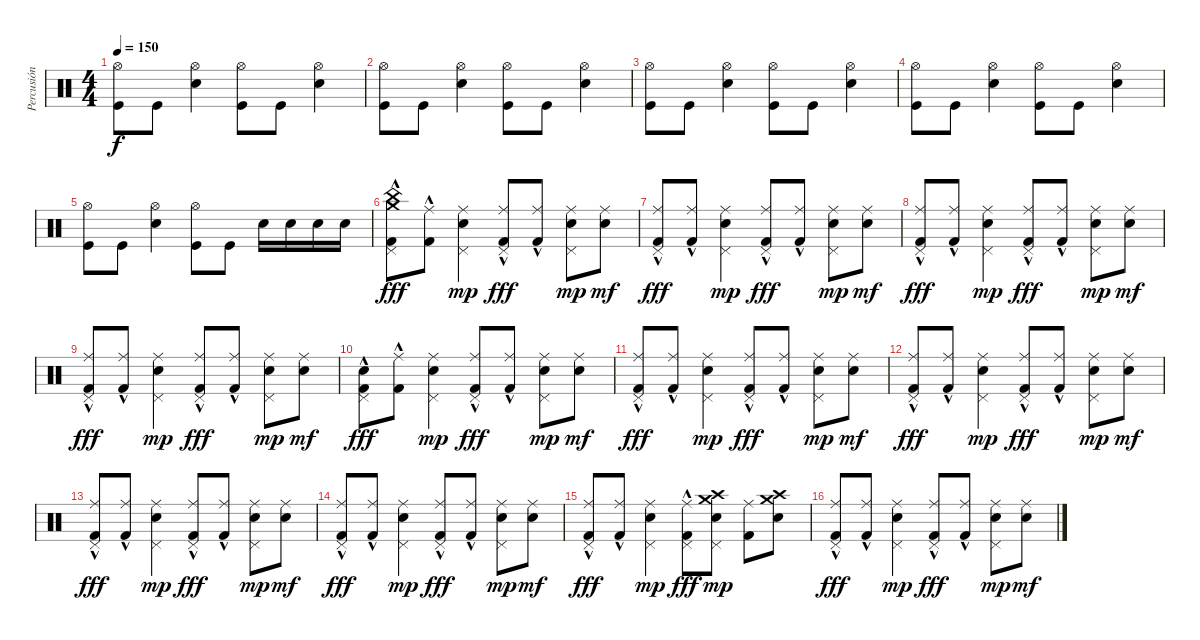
\track ("Percusión" "Percusión") {instrument percussion}
\staff {score}
\articulation defaults
\ts (4 4)
\tempo 150
\clef neutral
\ks c
("Hi-Hat (open)" "Kick (hit)").8{dy f} "Kick (hit)".8 ("Hi-Hat (open)" "Snare (hit) 2").4 ("Hi-Hat (open)" "Kick (hit)").8 "Kick (hit)".8 ("Hi-Hat (open)" "Snare (hit) 2").4 |
("Hi-Hat (open)" "Kick (hit)").8 "Kick (hit)".8 ("Hi-Hat (open)" "Snare (hit) 2").4 ("Hi-Hat (open)" "Kick (hit)").8 "Kick (hit)".8 ("Hi-Hat (open)" "Snare (hit) 2").4 |
("Hi-Hat (open)" "Kick (hit)").8 "Kick (hit)".8 ("Hi-Hat (open)" "Snare (hit) 2").4 ("Hi-Hat (open)" "Kick (hit)").8 "Kick (hit)".8 ("Hi-Hat (open)" "Snare (hit) 2").4 |
("Hi-Hat (open)" "Kick (hit)").8 "Kick (hit)".8 ("Hi-Hat (open)" "Snare (hit) 2").4 ("Hi-Hat (open)" "Kick (hit)").8 "Kick (hit)".8 ("Hi-Hat (open)" "Snare (hit) 2").4 |
("Hi-Hat (open)" "Kick (hit)").8 "Kick (hit)".8 ("Hi-Hat (open)" "Snare (hit) 2").4 ("Hi-Hat (open)" "Kick (hit)").8 "Kick (hit)".8 "Electric Snare (hit)".16 "Electric Snare (hit)".16 "Electric Snare (hit)".16 "Electric Snare (hit)".16 |
("Crash medium (hit)" "Pedal Hi-Hat (hit)" "China (hit)" "Kick (hit) 2"{hac}).8{dy fff} ("Ride (middle)" "Kick (hit) 2"{hac}).8 ("Ride (middle)" "Pedal Hi-Hat (hit)" "Electric Snare (hit)").4{dy mp} ("Ride (middle)" "Pedal Hi-Hat (hit)" "Kick (hit) 2"{hac}).8{dy fff} ("Ride (middle)" "Kick (hit) 2"{hac}).8 ("Ride (middle)" "Pedal Hi-Hat (hit)" "Electric Snare (hit)").8{dy mp} ("Ride (middle)" "Electric Snare (hit)").8{dy mf} |
("Ride (middle)" "Pedal Hi-Hat (hit)" "Kick (hit) 2"{hac}).8{dy fff} ("Ride (middle)" "Kick (hit) 2"{hac}).8 ("Ride (middle)" "Pedal Hi-Hat (hit)" "Electric Snare (hit)").4{dy mp} ("Ride (middle)" "Pedal Hi-Hat (hit)" "Kick (hit) 2"{hac}).8{dy fff} ("Ride (middle)" "Kick (hit) 2"{hac}).8 ("Ride (middle)" "Pedal Hi-Hat (hit)" "Electric Snare (hit)").8{dy mp} ("Ride (middle)" "Electric Snare (hit)").8{dy mf} |
("Ride (middle)" "Pedal Hi-Hat (hit)" "Kick (hit) 2"{hac}).8{dy fff} ("Ride (middle)" "Kick (hit) 2"{hac}).8 ("Ride (middle)" "Pedal Hi-Hat (hit)" "Electric Snare (hit)").4{dy mp} ("Ride (middle)" "Pedal Hi-Hat (hit)" "Kick (hit) 2"{hac}).8{dy fff} ("Ride (middle)" "Kick (hit) 2"{hac}).8 ("Ride (middle)" "Pedal Hi-Hat (hit)" "Electric Snare (hit)").8{dy mp} ("Ride (middle)" "Electric Snare (hit)").8{dy mf} |
("Ride (middle)" "Pedal Hi-Hat (hit)" "Kick (hit) 2"{hac}).8{dy fff} ("Ride (middle)" "Kick (hit) 2"{hac}).8 ("Ride (middle)" "Pedal Hi-Hat (hit)" "Electric Snare (hit)").4{dy mp} ("Ride (middle)" "Pedal Hi-Hat (hit)" "Kick (hit) 2"{hac}).8{dy fff} ("Ride (middle)" "Kick (hit) 2"{hac}).8 ("Ride (middle)" "Pedal Hi-Hat (hit)" "Electric Snare (hit)").8{dy mp} ("Ride (middle)" "Electric Snare (hit)").8{dy mf} |
("Snare (hit)" "Pedal Hi-Hat (hit)" "Kick (hit) 2"{hac}).8{dy fff} ("Ride (middle)" "Kick (hit) 2"{hac}).8 ("Ride (middle)" "Pedal Hi-Hat (hit)" "Electric Snare (hit)").4{dy mp} ("Ride (middle)" "Pedal Hi-Hat (hit)" "Kick (hit) 2"{hac}).8{dy fff} ("Ride (middle)" "Kick (hit) 2"{hac}).8 ("Ride (middle)" "Pedal Hi-Hat (hit)" "Electric Snare (hit)").8{dy mp} ("Ride (middle)" "Electric Snare (hit)").8{dy mf} |
("Ride (middle)" "Pedal Hi-Hat (hit)" "Kick (hit) 2"{hac}).8{dy fff} ("Ride (middle)" "Kick (hit) 2"{hac}).8 ("Ride (middle)" "Pedal Hi-Hat (hit)" "Electric Snare (hit)").4{dy mp} ("Ride (middle)" "Pedal Hi-Hat (hit)" "Kick (hit) 2"{hac}).8{dy fff} ("Ride (middle)" "Kick (hit) 2"{hac}).8 ("Ride (middle)" "Pedal Hi-Hat (hit)" "Electric Snare (hit)").8{dy mp} ("Ride (middle)" "Electric Snare (hit)").8{dy mf} |
("Ride (middle)" "Pedal Hi-Hat (hit)" "Kick (hit) 2"{hac}).8{dy fff} ("Ride (middle)" "Kick (hit) 2"{hac}).8 ("Ride (middle)" "Pedal Hi-Hat (hit)" "Electric Snare (hit)").4{dy mp} ("Ride (middle)" "Pedal Hi-Hat (hit)" "Kick (hit) 2"{hac}).8{dy fff} ("Ride (middle)" "Kick (hit) 2"{hac}).8 ("Ride (middle)" "Pedal Hi-Hat (hit)" "Electric Snare (hit)").8{dy mp} ("Ride (middle)" "Electric Snare (hit)").8{dy mf} |
("Ride (middle)" "Pedal Hi-Hat (hit)" "Kick (hit) 2"{hac}).8{dy fff} ("Ride (middle)" "Kick (hit) 2"{hac}).8 ("Ride (middle)" "Pedal Hi-Hat (hit)" "Electric Snare (hit)").4{dy mp} ("Ride (middle)" "Pedal Hi-Hat (hit)" "Kick (hit) 2"{hac}).8{dy fff} ("Ride (middle)" "Kick (hit) 2"{hac}).8 ("Ride (middle)" "Pedal Hi-Hat (hit)" "Electric Snare (hit)").8{dy mp} ("Ride (middle)" "Electric Snare (hit)").8{dy mf} |
("Ride (middle)" "Pedal Hi-Hat (hit)" "Kick (hit) 2"{hac}).8{dy fff} ("Ride (middle)" "Kick (hit) 2"{hac}).8 ("Ride (middle)" "Pedal Hi-Hat (hit)" "Electric Snare (hit)").4{dy mp} ("Ride (middle)" "Pedal Hi-Hat (hit)" "Kick (hit) 2"{hac}).8{dy fff} ("Ride (middle)" "Kick (hit) 2"{hac}).8 ("Ride (middle)" "Pedal Hi-Hat (hit)" "Electric Snare (hit)").8{dy mp} ("Ride (middle)" "Electric Snare (hit)").8{dy mf} |
("Ride (middle)" "Pedal Hi-Hat (hit)" "Kick (hit) 2"{hac}).8{dy fff} ("Ride (middle)" "Kick (hit) 2"{hac}).8 ("Ride (middle)" "Pedal Hi-Hat (hit)" "Electric Snare (hit)").4{dy mp} ("Ride (middle)" "Pedal Hi-Hat (hit)" "Kick (hit) 2"{hac}).8{dy fff} ("Crash high (hit)" "Pedal Hi-Hat (hit)" "Electric Snare (hit)" "Crash medium (hit)").8{dy mp} ("Ride (middle)" "Kick (hit) 2").8 ("Crash medium (hit)" "Electric Snare (hit)" "Crash high (hit)").8 |
("Ride (middle)" "Pedal Hi-Hat (hit)" "Kick (hit) 2"{hac}).8{dy fff} ("Ride (middle)" "Kick (hit) 2"{hac}).8 ("Ride (middle)" "Pedal Hi-Hat (hit)" "Electric Snare (hit)").4{dy mp} ("Ride (middle)" "Pedal Hi-Hat (hit)" "Kick (hit) 2"{hac}).8{dy fff} ("Ride (middle)" "Kick (hit) 2"{hac}).8 ("Ride (middle)" "Pedal Hi-Hat (hit)" "Electric Snare (hit)").8{dy mp} ("Ride (middle)" "Electric Snare (hit)").8{dy mf}
